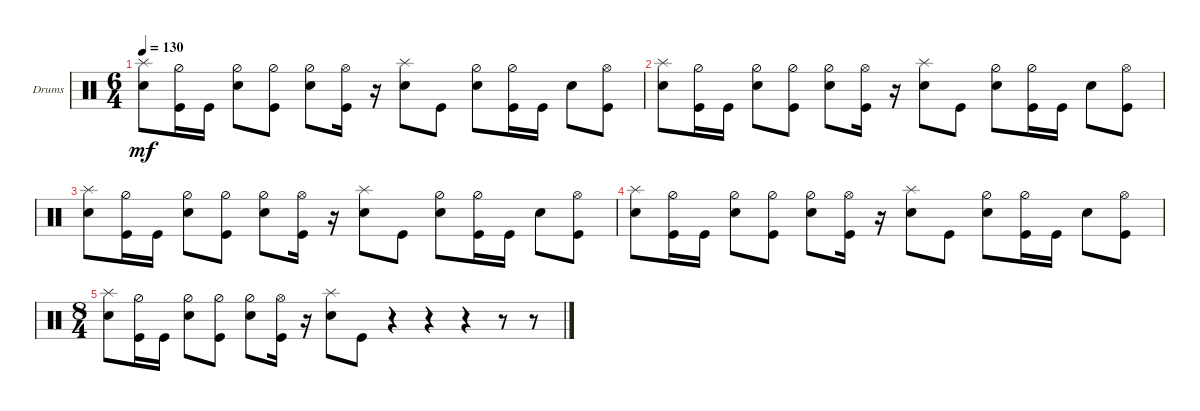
\bracketExtendMode groupsimilarinstruments
\firstSystemTrackNameOrientation horizontal
\otherSystemsTrackNameOrientation horizontal
\track ("Drumkit" "Drums") {instrument percussion}
\staff {score}
\articulation defaults
\ts (6 4)
\tempo 130
\clef neutral
\ks c
("Splash (hit)" "Snare (hit) 2").8{dy mf} ("Kick (hit)" "Hi-Hat (half)").16 "Kick (hit)".16 ("Hi-Hat (half)" "Snare (hit) 2").8 ("Kick (hit)" "Hi-Hat (half)").8 ("Snare (hit) 2" "Hi-Hat (half)").8 ("Kick (hit)" "Hi-Hat (open)").16 r.16 ("Splash (hit)" "Snare (hit) 2").8 "Kick (hit)".8 ("Hi-Hat (half)" "Snare (hit) 2").8 ("Hi-Hat (half)" "Kick (hit)").16 "Kick (hit)".16 "Snare (hit) 2".8 ("Kick (hit)" "Hi-Hat (open)").8 |
("Splash (hit)" "Snare (hit) 2").8 ("Kick (hit)" "Hi-Hat (half)").16 "Kick (hit)".16 ("Hi-Hat (half)" "Snare (hit) 2").8 ("Kick (hit)" "Hi-Hat (half)").8 ("Snare (hit) 2" "Hi-Hat (half)").8 ("Kick (hit)" "Hi-Hat (open)").16 r.16 ("Splash (hit)" "Snare (hit) 2").8 "Kick (hit)".8 ("Hi-Hat (half)" "Snare (hit) 2").8 ("Hi-Hat (half)" "Kick (hit)").16 "Kick (hit)".16 "Snare (hit) 2".8 ("Kick (hit)" "Hi-Hat (open)").8 |
("Splash (hit)" "Snare (hit) 2").8 ("Kick (hit)" "Hi-Hat (half)").16 "Kick (hit)".16 ("Hi-Hat (half)" "Snare (hit) 2").8 ("Kick (hit)" "Hi-Hat (half)").8 ("Snare (hit) 2" "Hi-Hat (half)").8 ("Kick (hit)" "Hi-Hat (open)").16 r.16 ("Splash (hit)" "Snare (hit) 2").8 "Kick (hit)".8 ("Hi-Hat (half)" "Snare (hit) 2").8 ("Hi-Hat (half)" "Kick (hit)").16 "Kick (hit)".16 "Snare (hit) 2".8 ("Kick (hit)" "Hi-Hat (open)").8 |
("Splash (hit)" "Snare (hit) 2").8 ("Kick (hit)" "Hi-Hat (half)").16 "Kick (hit)".16 ("Hi-Hat (half)" "Snare (hit) 2").8 ("Kick (hit)" "Hi-Hat (half)").8 ("Snare (hit) 2" "Hi-Hat (half)").8 ("Kick (hit)" "Hi-Hat (open)").16 r.16 ("Splash (hit)" "Snare (hit) 2").8 "Kick (hit)".8 ("Hi-Hat (half)" "Snare (hit) 2").8 ("Hi-Hat (half)" "Kick (hit)").16 "Kick (hit)".16 "Snare (hit) 2".8 ("Kick (hit)" "Hi-Hat (open)").8 |
\ts (8 4)
("Splash (hit)" "Snare (hit) 2").8 ("Kick (hit)" "Hi-Hat (half)").16 "Kick (hit)".16 ("Hi-Hat (half)" "Snare (hit) 2").8 ("Kick (hit)" "Hi-Hat (half)").8 ("Snare (hit) 2" "Hi-Hat (half)").8 ("Kick (hit)" "Hi-Hat (open)").16 r.16 ("Splash (hit)" "Snare (hit) 2").8 "Kick (hit)".8 r.4 r.4 r.4 r.8 r.8
